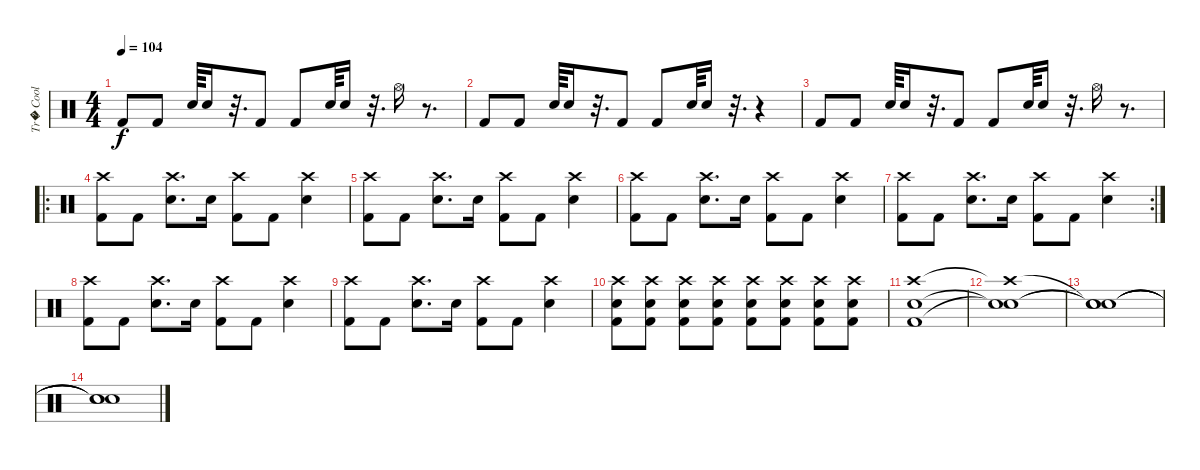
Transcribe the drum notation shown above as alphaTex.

\track ("Tr� Cool" "Tr� Cool") {instrument percussion}
\staff {score}
\articulation defaults
\ts (4 4)
\tempo 104
\clef neutral
\ks c "Kick (hit) 2".8{dy f volume 13} "Kick (hit) 2".8 "Electric Snare (hit)".64 "Electric Snare (hit)".16
r.32{d} "Kick (hit) 2".8 "Kick (hit) 2".8 "Electric Snare (hit)".64 "Electric Snare (hit)".16 r.32{d} "Hi-Hat (open)".16 r.8{d} |
"Kick (hit) 2".8{volume 13} "Kick (hit) 2".8 "Electric Snare (hit)".64 "Electric Snare (hit)".16 r.32{d} "Kick (hit) 2".8 "Kick (hit) 2".8 "Electric Snare (hit)".64 "Electric Snare (hit)".16 r.32{d} r.4 |
"Kick (hit) 2".8{volume 13} "Kick (hit) 2".8 "Electric Snare (hit)".64 "Electric Snare (hit)".16 r.32{d} "Kick (hit) 2".8 "Kick (hit) 2".8 "Electric Snare (hit)".64 "Electric Snare (hit)".16 r.32{d} "Hi-Hat (open)".16 r.8{d} |
\ro
("Crash high (hit)" "Kick (hit) 2").8 "Kick (hit) 2".8 ("Crash high (hit)" "Electric Snare (hit)").8{d} "Electric Snare (hit)".16 ("Crash high (hit)" "Kick (hit) 2").8 "Kick (hit) 2".8 ("Crash high (hit)" "Electric Snare (hit)").4 |
("Crash high (hit)" "Kick (hit) 2").8 "Kick (hit) 2".8 ("Crash high (hit)" "Electric Snare (hit)").8{d} "Electric Snare (hit)".16 ("Crash high (hit)" "Kick (hit) 2").8 "Kick (hit) 2".8 ("Crash high (hit)" "Electric Snare (hit)").4 |
("Crash high (hit)" "Kick (hit) 2").8 "Kick (hit) 2".8 ("Crash high (hit)" "Electric Snare (hit)").8{d} "Electric Snare (hit)".16 ("Crash high (hit)" "Kick (hit) 2").8 "Kick (hit) 2".8 ("Crash high (hit)" "Electric Snare (hit)").4 |
\rc 2
("Crash high (hit)" "Kick (hit) 2").8 "Kick (hit) 2".8 ("Crash high (hit)" "Electric Snare (hit)").8{d} "Electric Snare (hit)".16 ("Crash high (hit)" "Kick (hit) 2").8 "Kick (hit) 2".8 ("Crash high (hit)" "Electric Snare (hit)").4 |
("Crash high (hit)" "Kick (hit) 2").8 "Kick (hit) 2".8 ("Crash high (hit)" "Electric Snare (hit)").8{d} "Electric Snare (hit)".16 ("Crash high (hit)" "Kick (hit) 2").8 "Kick (hit) 2".8 ("Crash high (hit)" "Electric Snare (hit)").4 |
("Crash high (hit)" "Kick (hit) 2").8 "Kick (hit) 2".8 ("Crash high (hit)" "Electric Snare (hit)").8{d} "Electric Snare (hit)".16 ("Crash high (hit)" "Kick (hit) 2").8 "Kick (hit) 2".8 ("Crash high (hit)" "Electric Snare (hit)").4 |
("Crash high (hit)" "Electric Snare (hit)" "Kick (hit) 2").8 ("Crash high (hit)" "Electric Snare (hit)" "Kick (hit) 2").8 ("Crash high (hit)" "Electric Snare (hit)" "Kick (hit) 2").8 ("Crash high (hit)" "Electric Snare (hit)" "Kick (hit) 2").8 ("Crash high (hit)" "Electric Snare (hit)" "Kick (hit) 2").8 ("Crash high (hit)" "Electric Snare (hit)" "Kick (hit) 2").8 ("Crash high (hit)" "Electric Snare (hit)" "Kick (hit) 2").8 ("Crash high (hit)" "Electric Snare (hit)" "Kick (hit) 2").8 |
("Crash high (hit)" "Electric Snare (hit)" "Kick (hit) 2").1 |
("Crash high (hit)"{t} "Snare (hit)"{t} "Snare (hit)"{t}).1 |
("Snare (hit)"{t} "Snare (hit)"{t} "Snare (hit)"{t}).1 |
("Snare (hit)"{t} "Snare (hit)"{t} "Snare (hit)"{t}).1
